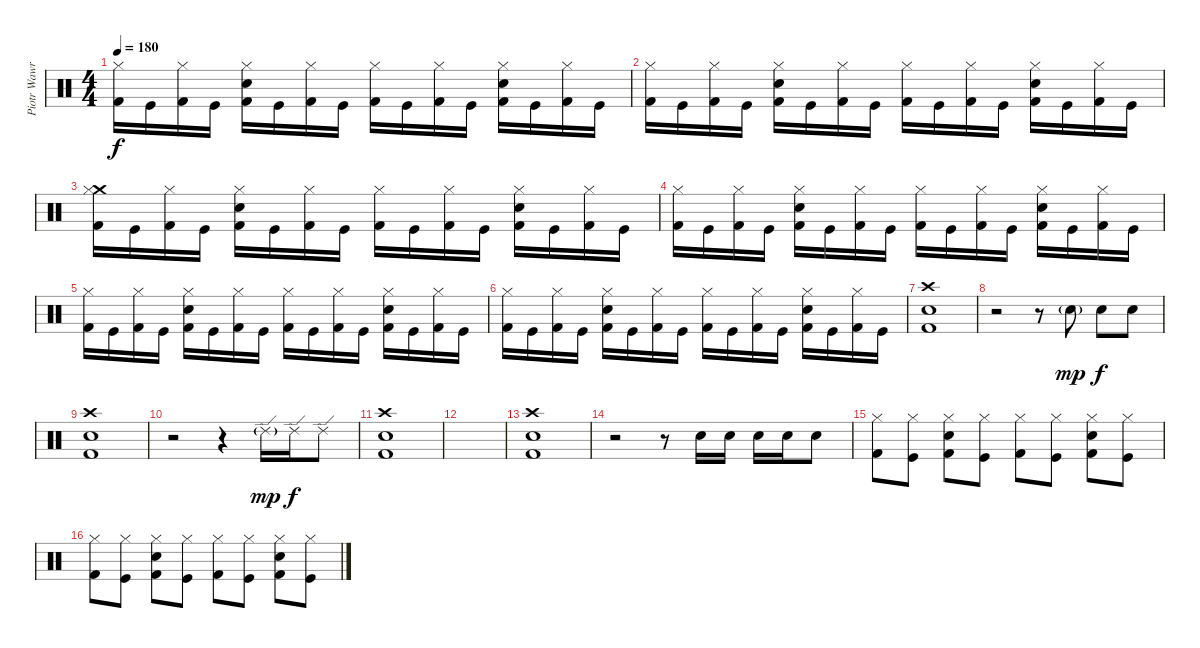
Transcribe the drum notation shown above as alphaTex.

\track ("Piotr Wawrzeniuk" "Piotr Wawr") {instrument percussion}
\staff {score}
\articulation defaults
\ts (4 4)
\tempo 180
\clef neutral
\ks c
("Hi-Hat (closed)" "Kick (hit) 2").16{dy f} "Kick (hit)".16 ("Hi-Hat (closed)" "Kick (hit) 2").16 "Kick (hit)".16 ("Snare (hit) 2" "Hi-Hat (closed)" "Kick (hit) 2").16 "Kick (hit)".16 ("Hi-Hat (closed)" "Kick (hit) 2").16 "Kick (hit)".16 ("Hi-Hat (closed)" "Kick (hit) 2").16 "Kick (hit)".16 ("Hi-Hat (closed)" "Kick (hit) 2").16 "Kick (hit)".16 ("Snare (hit) 2" "Hi-Hat (closed)" "Kick (hit) 2").16 "Kick (hit)".16 ("Hi-Hat (closed)" "Kick (hit) 2").16 "Kick (hit)".16 |
("Hi-Hat (closed)" "Kick (hit) 2").16 "Kick (hit)".16 ("Hi-Hat (closed)" "Kick (hit) 2").16 "Kick (hit)".16 ("Snare (hit) 2" "Hi-Hat (closed)" "Kick (hit) 2").16 "Kick (hit)".16 ("Hi-Hat (closed)" "Kick (hit) 2").16 "Kick (hit)".16 ("Hi-Hat (closed)" "Kick (hit) 2").16 "Kick (hit)".16 ("Hi-Hat (closed)" "Kick (hit) 2").16 "Kick (hit)".16 ("Snare (hit) 2" "Hi-Hat (closed)" "Kick (hit) 2").16 "Kick (hit)".16 ("Hi-Hat (closed)" "Kick (hit) 2").16 "Kick (hit)".16 |
("Crash medium (hit)" "Hi-Hat (closed)" "Kick (hit) 2").16 "Kick (hit)".16 ("Hi-Hat (closed)" "Kick (hit) 2").16 "Kick (hit)".16 ("Snare (hit) 2" "Hi-Hat (closed)" "Kick (hit) 2").16 "Kick (hit)".16 ("Hi-Hat (closed)" "Kick (hit) 2").16 "Kick (hit)".16 ("Hi-Hat (closed)" "Kick (hit) 2").16 "Kick (hit)".16 ("Hi-Hat (closed)" "Kick (hit) 2").16 "Kick (hit)".16 ("Snare (hit) 2" "Hi-Hat (closed)" "Kick (hit) 2").16 "Kick (hit)".16 ("Hi-Hat (closed)" "Kick (hit) 2").16 "Kick (hit)".16 |
("Hi-Hat (closed)" "Kick (hit) 2").16 "Kick (hit)".16 ("Hi-Hat (closed)" "Kick (hit) 2").16 "Kick (hit)".16 ("Snare (hit) 2" "Hi-Hat (closed)" "Kick (hit) 2").16 "Kick (hit)".16 ("Hi-Hat (closed)" "Kick (hit) 2").16 "Kick (hit)".16 ("Hi-Hat (closed)" "Kick (hit) 2").16 "Kick (hit)".16 ("Hi-Hat (closed)" "Kick (hit) 2").16 "Kick (hit)".16 ("Snare (hit) 2" "Hi-Hat (closed)" "Kick (hit) 2").16 "Kick (hit)".16 ("Hi-Hat (closed)" "Kick (hit) 2").16 "Kick (hit)".16 |
("Hi-Hat (closed)" "Kick (hit) 2").16 "Kick (hit)".16 ("Hi-Hat (closed)" "Kick (hit) 2").16 "Kick (hit)".16 ("Snare (hit) 2" "Hi-Hat (closed)" "Kick (hit) 2").16 "Kick (hit)".16 ("Hi-Hat (closed)" "Kick (hit) 2").16 "Kick (hit)".16 ("Hi-Hat (closed)" "Kick (hit) 2").16 "Kick (hit)".16 ("Hi-Hat (closed)" "Kick (hit) 2").16 "Kick (hit)".16 ("Snare (hit) 2" "Hi-Hat (closed)" "Kick (hit) 2").16 "Kick (hit)".16 ("Hi-Hat (closed)" "Kick (hit) 2").16 "Kick (hit)".16 |
("Hi-Hat (closed)" "Kick (hit) 2").16 "Kick (hit)".16 ("Hi-Hat (closed)" "Kick (hit) 2").16 "Kick (hit)".16 ("Snare (hit) 2" "Hi-Hat (closed)" "Kick (hit) 2").16 "Kick (hit)".16 ("Hi-Hat (closed)" "Kick (hit) 2").16 "Kick (hit)".16 ("Hi-Hat (closed)" "Kick (hit) 2").16 "Kick (hit)".16 ("Hi-Hat (closed)" "Kick (hit) 2").16 "Kick (hit)".16 ("Snare (hit) 2" "Hi-Hat (closed)" "Kick (hit) 2").16 "Kick (hit)".16 ("Hi-Hat (closed)" "Kick (hit) 2").16 "Kick (hit)".16 |
("Crash high (hit)" "Snare (hit) 2" "Kick (hit) 2").1 |
r.2 r.8 "Snare (hit) 2"{g}.8{dy mp} "Snare (hit) 2".8{dy f} "Snare (hit) 2".8 |
("Crash high (hit)" "Snare (hit) 2" "Kick (hit) 2").1 |
r.2 r.4 "Ride (edge) 2"{g}.16{dy mp} "Ride (edge) 2".16{dy f} "Ride (edge) 2".8 |
("Crash high (hit)" "Snare (hit) 2" "Kick (hit) 2").1 |
|
("Crash high (hit)" "Snare (hit) 2" "Kick (hit) 2").1 |
r.2 r.8 "Snare (hit) 2".16 "Snare (hit) 2".16 "Snare (hit) 2".16 "Snare (hit) 2".16 "Snare (hit) 2".8 |
("Hi-Hat (closed)" "Kick (hit) 2").8 ("Hi-Hat (closed)" "Kick (hit)").8 ("Snare (hit) 2" "Hi-Hat (closed)" "Kick (hit) 2").8 ("Hi-Hat (closed)" "Kick (hit)").8 ("Hi-Hat (closed)" "Kick (hit) 2").8 ("Hi-Hat (closed)" "Kick (hit)").8 ("Snare (hit) 2" "Hi-Hat (closed)" "Kick (hit) 2").8 ("Hi-Hat (closed)" "Kick (hit)").8 |
("Hi-Hat (closed)" "Kick (hit) 2").8 ("Hi-Hat (closed)" "Kick (hit)").8 ("Snare (hit) 2" "Hi-Hat (closed)" "Kick (hit) 2").8 ("Hi-Hat (closed)" "Kick (hit)").8 ("Hi-Hat (closed)" "Kick (hit) 2").8 ("Hi-Hat (closed)" "Kick (hit)").8 ("Snare (hit) 2" "Hi-Hat (closed)" "Kick (hit) 2").8 ("Hi-Hat (closed)" "Kick (hit)").8
